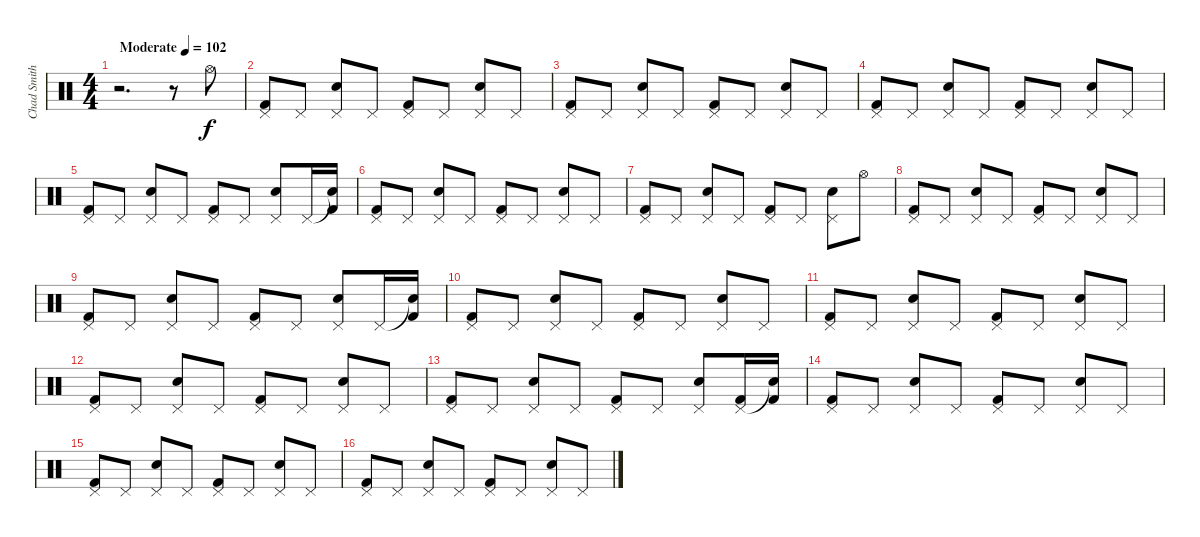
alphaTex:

\track ("Chad Smith (Batterie)" "Chad Smith") {instrument percussion}
\staff {score}
\articulation defaults
\ts (4 4)
\tempo (102 "Moderate")
\clef neutral
\ks c
r.2{d dy f} r.8 "Hi-Hat (open)".8 |
("Pedal Hi-Hat (hit)" "Kick (hit) 2").8 "Pedal Hi-Hat (hit)".8 ("Pedal Hi-Hat (hit)" "Electric Snare (hit)").8 "Pedal Hi-Hat (hit)".8 ("Pedal Hi-Hat (hit)" "Kick (hit) 2").8 "Pedal Hi-Hat (hit)".8 ("Pedal Hi-Hat (hit)" "Electric Snare (hit)").8 "Pedal Hi-Hat (hit)".8 |
("Pedal Hi-Hat (hit)" "Kick (hit) 2").8 "Pedal Hi-Hat (hit)".8 ("Pedal Hi-Hat (hit)" "Electric Snare (hit)").8 "Pedal Hi-Hat (hit)".8 ("Pedal Hi-Hat (hit)" "Kick (hit) 2").8 "Pedal Hi-Hat (hit)".8 ("Pedal Hi-Hat (hit)" "Electric Snare (hit)").8 "Pedal Hi-Hat (hit)".8 |
("Pedal Hi-Hat (hit)" "Kick (hit) 2").8 "Pedal Hi-Hat (hit)".8 ("Pedal Hi-Hat (hit)" "Electric Snare (hit)").8 "Pedal Hi-Hat (hit)".8 ("Pedal Hi-Hat (hit)" "Kick (hit) 2").8 "Pedal Hi-Hat (hit)".8 ("Pedal Hi-Hat (hit)" "Electric Snare (hit)").8 "Pedal Hi-Hat (hit)".8 |
("Pedal Hi-Hat (hit)" "Kick (hit) 2").8 "Pedal Hi-Hat (hit)".8 ("Pedal Hi-Hat (hit)" "Electric Snare (hit)").8 "Pedal Hi-Hat (hit)".8 ("Pedal Hi-Hat (hit)" "Kick (hit) 2").8 "Pedal Hi-Hat (hit)".8 ("Pedal Hi-Hat (hit)" "Electric Snare (hit)").8 "Pedal Hi-Hat (hit)".16 ("Snare (hit)"{t} "Kick (hit) 2").16 |
("Pedal Hi-Hat (hit)" "Kick (hit) 2").8 "Pedal Hi-Hat (hit)".8 ("Pedal Hi-Hat (hit)" "Electric Snare (hit)").8 "Pedal Hi-Hat (hit)".8 ("Pedal Hi-Hat (hit)" "Kick (hit) 2").8 "Pedal Hi-Hat (hit)".8 ("Pedal Hi-Hat (hit)" "Electric Snare (hit)").8 "Pedal Hi-Hat (hit)".8 |
("Pedal Hi-Hat (hit)" "Kick (hit) 2").8 "Pedal Hi-Hat (hit)".8 ("Pedal Hi-Hat (hit)" "Electric Snare (hit)").8 "Pedal Hi-Hat (hit)".8 ("Pedal Hi-Hat (hit)" "Kick (hit) 2").8 "Pedal Hi-Hat (hit)".8 ("Pedal Hi-Hat (hit)" "Electric Snare (hit)").8 "Hi-Hat (open)".8 |
("Pedal Hi-Hat (hit)" "Kick (hit) 2").8 "Pedal Hi-Hat (hit)".8 ("Pedal Hi-Hat (hit)" "Electric Snare (hit)").8 "Pedal Hi-Hat (hit)".8 ("Pedal Hi-Hat (hit)" "Kick (hit) 2").8 "Pedal Hi-Hat (hit)".8 ("Pedal Hi-Hat (hit)" "Electric Snare (hit)").8 "Pedal Hi-Hat (hit)".8 |
("Pedal Hi-Hat (hit)" "Kick (hit) 2").8 "Pedal Hi-Hat (hit)".8 ("Pedal Hi-Hat (hit)" "Electric Snare (hit)").8 "Pedal Hi-Hat (hit)".8 ("Pedal Hi-Hat (hit)" "Kick (hit) 2").8 "Pedal Hi-Hat (hit)".8 ("Pedal Hi-Hat (hit)" "Electric Snare (hit)").8 "Pedal Hi-Hat (hit)".16 ("Snare (hit)"{t} "Kick (hit) 2").16 |
("Pedal Hi-Hat (hit)" "Kick (hit) 2").8 "Pedal Hi-Hat (hit)".8 ("Pedal Hi-Hat (hit)" "Electric Snare (hit)").8 "Pedal Hi-Hat (hit)".8 ("Pedal Hi-Hat (hit)" "Kick (hit) 2").8 "Pedal Hi-Hat (hit)".8 ("Pedal Hi-Hat (hit)" "Electric Snare (hit)").8 "Pedal Hi-Hat (hit)".8 |
("Pedal Hi-Hat (hit)" "Kick (hit) 2").8 "Pedal Hi-Hat (hit)".8 ("Pedal Hi-Hat (hit)" "Electric Snare (hit)").8 "Pedal Hi-Hat (hit)".8 ("Pedal Hi-Hat (hit)" "Kick (hit) 2").8 "Pedal Hi-Hat (hit)".8 ("Pedal Hi-Hat (hit)" "Electric Snare (hit)").8 "Pedal Hi-Hat (hit)".8 |
("Pedal Hi-Hat (hit)" "Kick (hit) 2").8 "Pedal Hi-Hat (hit)".8 ("Pedal Hi-Hat (hit)" "Electric Snare (hit)").8 "Pedal Hi-Hat (hit)".8 ("Pedal Hi-Hat (hit)" "Kick (hit) 2").8 "Pedal Hi-Hat (hit)".8 ("Pedal Hi-Hat (hit)" "Electric Snare (hit)").8 "Pedal Hi-Hat (hit)".8 |
("Pedal Hi-Hat (hit)" "Kick (hit) 2").8 "Pedal Hi-Hat (hit)".8 ("Pedal Hi-Hat (hit)" "Electric Snare (hit)").8 "Pedal Hi-Hat (hit)".8 ("Pedal Hi-Hat (hit)" "Kick (hit) 2").8 "Pedal Hi-Hat (hit)".8 ("Pedal Hi-Hat (hit)" "Electric Snare (hit)").8 ("Pedal Hi-Hat (hit)" "Kick (hit) 2").16 ("Snare (hit)"{t} "Kick (hit) 2").16 |
("Pedal Hi-Hat (hit)" "Kick (hit) 2").8 "Pedal Hi-Hat (hit)".8 ("Pedal Hi-Hat (hit)" "Electric Snare (hit)").8 "Pedal Hi-Hat (hit)".8 ("Pedal Hi-Hat (hit)" "Kick (hit) 2").8 "Pedal Hi-Hat (hit)".8 ("Pedal Hi-Hat (hit)" "Electric Snare (hit)").8 "Pedal Hi-Hat (hit)".8 |
("Pedal Hi-Hat (hit)" "Kick (hit) 2").8 "Pedal Hi-Hat (hit)".8 ("Pedal Hi-Hat (hit)" "Electric Snare (hit)").8 "Pedal Hi-Hat (hit)".8 ("Pedal Hi-Hat (hit)" "Kick (hit) 2").8 "Pedal Hi-Hat (hit)".8 ("Pedal Hi-Hat (hit)" "Electric Snare (hit)").8 "Pedal Hi-Hat (hit)".8 |
("Pedal Hi-Hat (hit)" "Kick (hit) 2").8 "Pedal Hi-Hat (hit)".8 ("Pedal Hi-Hat (hit)" "Electric Snare (hit)").8 "Pedal Hi-Hat (hit)".8 ("Pedal Hi-Hat (hit)" "Kick (hit) 2").8 "Pedal Hi-Hat (hit)".8 ("Pedal Hi-Hat (hit)" "Electric Snare (hit)").8 "Pedal Hi-Hat (hit)".8
